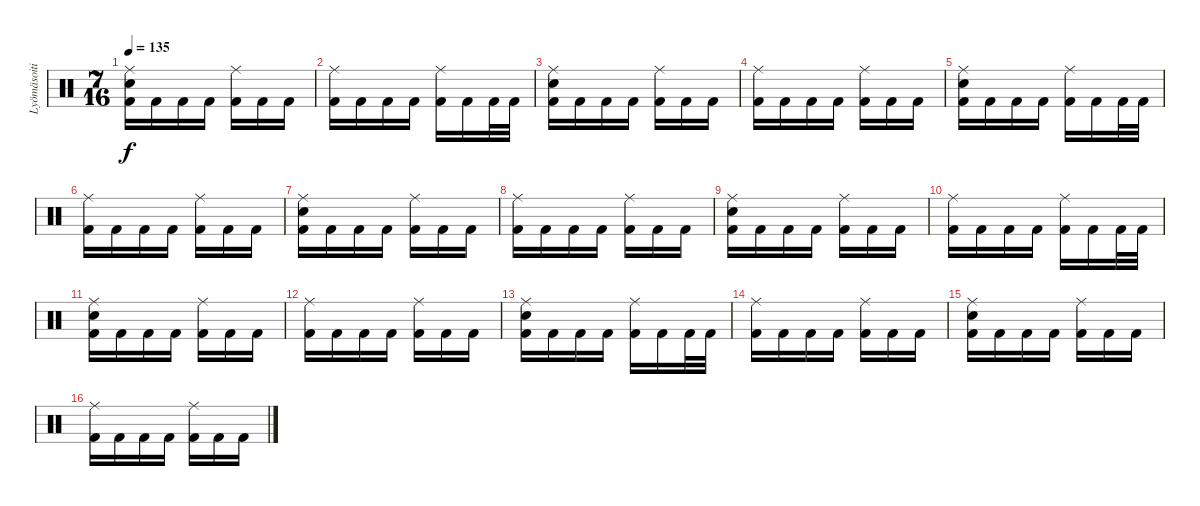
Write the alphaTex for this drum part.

\track ("Lyömäsoitin" "Lyömäsoiti") {instrument percussion}
\staff {score}
\articulation defaults
\ts (7 16)
\tempo 135
\clef neutral
\ks c
("Ride (middle)" "Electric Snare (hit)" "Kick (hit) 2").16{dy f} "Kick (hit) 2".16 "Kick (hit) 2".16 "Kick (hit) 2".16 ("Ride (middle)" "Kick (hit) 2").16 "Kick (hit) 2".16 "Kick (hit) 2".16 |
("Ride (middle)" "Kick (hit) 2").16 "Kick (hit) 2".16 "Kick (hit) 2".16 "Kick (hit) 2".16 ("Ride (middle)" "Kick (hit) 2").16 "Kick (hit) 2".16 "Kick (hit) 2".32 "Kick (hit) 2".32 |
("Ride (middle)" "Electric Snare (hit)" "Kick (hit) 2").16 "Kick (hit) 2".16 "Kick (hit) 2".16 "Kick (hit) 2".16 ("Ride (middle)" "Kick (hit) 2").16 "Kick (hit) 2".16 "Kick (hit) 2".16 |
("Ride (middle)" "Kick (hit) 2").16 "Kick (hit) 2".16 "Kick (hit) 2".16 "Kick (hit) 2".16 ("Ride (middle)" "Kick (hit) 2").16 "Kick (hit) 2".16 "Kick (hit) 2".16 |
("Ride (middle)" "Electric Snare (hit)" "Kick (hit) 2").16 "Kick (hit) 2".16 "Kick (hit) 2".16 "Kick (hit) 2".16 ("Ride (middle)" "Kick (hit) 2").16 "Kick (hit) 2".16 "Kick (hit) 2".32 "Kick (hit) 2".32 |
("Ride (middle)" "Kick (hit) 2").16 "Kick (hit) 2".16 "Kick (hit) 2".16 "Kick (hit) 2".16 ("Ride (middle)" "Kick (hit) 2").16 "Kick (hit) 2".16 "Kick (hit) 2".16 |
("Ride (middle)" "Electric Snare (hit)" "Kick (hit) 2").16 "Kick (hit) 2".16 "Kick (hit) 2".16 "Kick (hit) 2".16 ("Ride (middle)" "Kick (hit) 2").16 "Kick (hit) 2".16 "Kick (hit) 2".16 |
("Ride (middle)" "Kick (hit) 2").16 "Kick (hit) 2".16 "Kick (hit) 2".16 "Kick (hit) 2".16 ("Ride (middle)" "Kick (hit) 2").16 "Kick (hit) 2".16 "Kick (hit) 2".16 |
("Ride (middle)" "Electric Snare (hit)" "Kick (hit) 2").16 "Kick (hit) 2".16 "Kick (hit) 2".16 "Kick (hit) 2".16 ("Ride (middle)" "Kick (hit) 2").16 "Kick (hit) 2".16 "Kick (hit) 2".16 |
("Ride (middle)" "Kick (hit) 2").16 "Kick (hit) 2".16 "Kick (hit) 2".16 "Kick (hit) 2".16 ("Ride (middle)" "Kick (hit) 2").16 "Kick (hit) 2".16 "Kick (hit) 2".32 "Kick (hit) 2".32 |
("Ride (middle)" "Electric Snare (hit)" "Kick (hit) 2").16 "Kick (hit) 2".16 "Kick (hit) 2".16 "Kick (hit) 2".16 ("Ride (middle)" "Kick (hit) 2").16 "Kick (hit) 2".16 "Kick (hit) 2".16 |
("Ride (middle)" "Kick (hit) 2").16 "Kick (hit) 2".16 "Kick (hit) 2".16 "Kick (hit) 2".16 ("Ride (middle)" "Kick (hit) 2").16 "Kick (hit) 2".16 "Kick (hit) 2".16 |
("Ride (middle)" "Electric Snare (hit)" "Kick (hit) 2").16 "Kick (hit) 2".16 "Kick (hit) 2".16 "Kick (hit) 2".16 ("Ride (middle)" "Kick (hit) 2").16 "Kick (hit) 2".16 "Kick (hit) 2".32 "Kick (hit) 2".32 |
("Ride (middle)" "Kick (hit) 2").16 "Kick (hit) 2".16 "Kick (hit) 2".16 "Kick (hit) 2".16 ("Ride (middle)" "Kick (hit) 2").16 "Kick (hit) 2".16 "Kick (hit) 2".16 |
("Ride (middle)" "Electric Snare (hit)" "Kick (hit) 2").16 "Kick (hit) 2".16 "Kick (hit) 2".16 "Kick (hit) 2".16 ("Ride (middle)" "Kick (hit) 2").16 "Kick (hit) 2".16 "Kick (hit) 2".16 |
("Ride (middle)" "Kick (hit) 2").16 "Kick (hit) 2".16 "Kick (hit) 2".16 "Kick (hit) 2".16 ("Ride (middle)" "Kick (hit) 2").16 "Kick (hit) 2".16 "Kick (hit) 2".16
